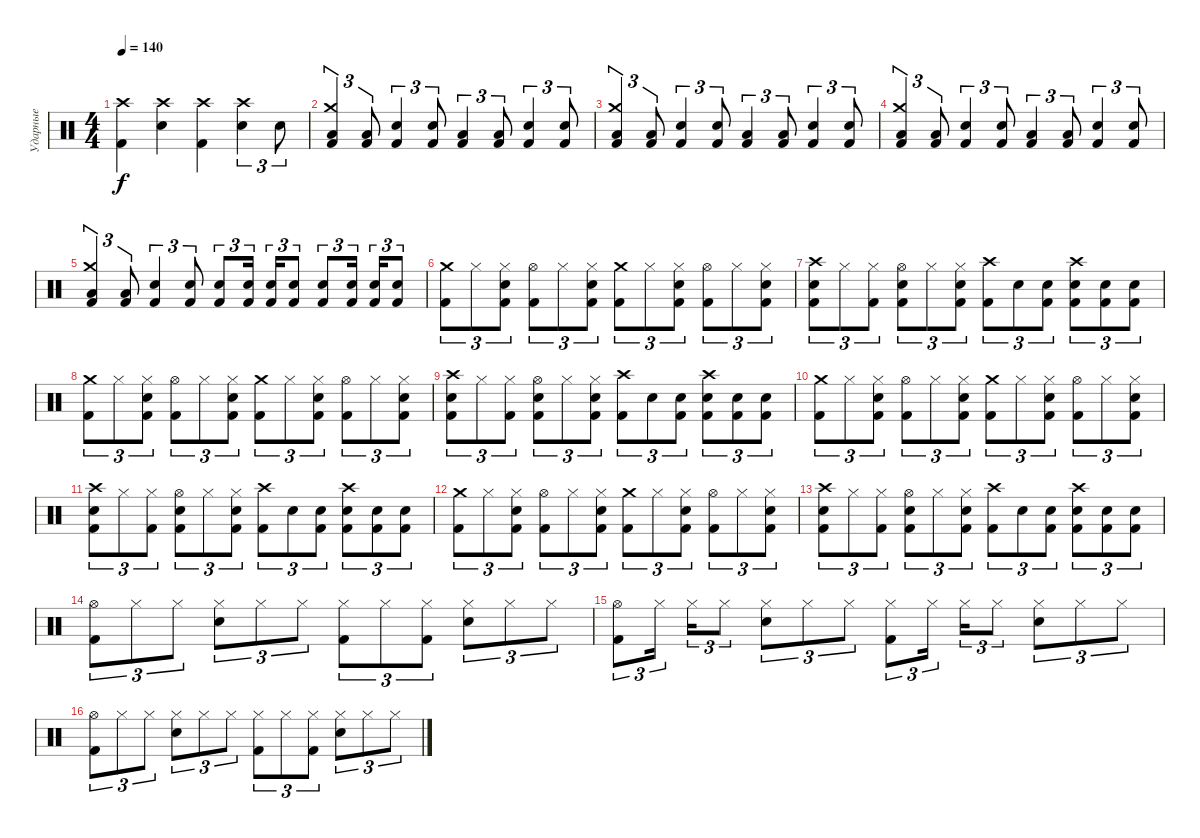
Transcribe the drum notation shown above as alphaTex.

\track ("Ударные" "Ударные") {instrument percussion}
\staff {score}
\articulation defaults
\ts (4 4)
\tempo 140
\clef neutral
\ks c
("Crash high (hit)" "Kick (hit) 2").4{dy f} ("Crash high (hit)" "Snare (hit) 2").4 ("Crash high (hit)" "Kick (hit) 2").4 ("Crash high (hit)" "Snare (hit) 2").4{tu (3 2)} "Snare (hit) 2".8{tu (3 2)} |
("Crash medium (hit)" "Low Floor Tom (hit)" "Kick (hit) 2").4{tu (3 2)} ("Low Floor Tom (hit)" "Kick (hit) 2").8{tu (3 2)} ("Snare (hit) 2" "Kick (hit) 2").4{tu (3 2)} ("Snare (hit) 2" "Kick (hit) 2").8{tu (3 2)} ("Low Tom (hit)" "Kick (hit) 2").4{tu (3 2)} ("Low Tom (hit)" "Kick (hit) 2").8{tu (3 2)} ("Snare (hit) 2" "Kick (hit) 2").4{tu (3 2)} ("Snare (hit) 2" "Kick (hit) 2").8{tu (3 2)} |
("Crash medium (hit)" "Low Floor Tom (hit)" "Kick (hit) 2").4{tu (3 2)} ("Low Floor Tom (hit)" "Kick (hit) 2").8{tu (3 2)} ("Snare (hit) 2" "Kick (hit) 2").4{tu (3 2)} ("Snare (hit) 2" "Kick (hit) 2").8{tu (3 2)} ("Low Tom (hit)" "Kick (hit) 2").4{tu (3 2)} ("Low Tom (hit)" "Kick (hit) 2").8{tu (3 2)} ("Snare (hit) 2" "Kick (hit) 2").4{tu (3 2)} ("Snare (hit) 2" "Kick (hit) 2").8{tu (3 2)} |
("Crash medium (hit)" "Low Floor Tom (hit)" "Kick (hit) 2").4{tu (3 2)} ("Low Floor Tom (hit)" "Kick (hit) 2").8{tu (3 2)} ("Snare (hit) 2" "Kick (hit) 2").4{tu (3 2)} ("Snare (hit) 2" "Kick (hit) 2").8{tu (3 2)} ("Low Tom (hit)" "Kick (hit) 2").4{tu (3 2)} ("Low Tom (hit)" "Kick (hit) 2").8{tu (3 2)} ("Snare (hit) 2" "Kick (hit) 2").4{tu (3 2)} ("Snare (hit) 2" "Kick (hit) 2").8{tu (3 2)} |
("Crash medium (hit)" "Low Floor Tom (hit)" "Kick (hit) 2").4{tu (3 2)} ("Low Floor Tom (hit)" "Kick (hit) 2").8{tu (3 2)} ("Snare (hit) 2" "Kick (hit) 2").4{tu (3 2)} ("Snare (hit) 2" "Kick (hit) 2").8{tu (3 2)} ("Electric Snare (hit)" "Kick (hit) 2").8{tu (3 2)} ("Electric Snare (hit)" "Kick (hit) 2").16{tu (3 2) beam splitsecondary} ("Electric Snare (hit)" "Kick (hit) 2").16{tu (3 2)} ("Electric Snare (hit)" "Kick (hit) 2").8{tu (3 2)} ("Snare (hit) 2" "Kick (hit) 2").8{tu (3 2)} ("Snare (hit) 2" "Kick (hit) 2").16{tu (3 2) beam splitsecondary} ("Snare (hit) 2" "Kick (hit) 2").16{tu (3 2)} ("Snare (hit) 2" "Kick (hit) 2").8{tu (3 2)} |
("Crash medium (hit)" "Kick (hit) 2").8{tu (3 2)} "Hi-Hat (closed)".8{tu (3 2)} ("Hi-Hat (closed)" "Snare (hit) 2" "Kick (hit) 2").8{tu (3 2)} ("Hi-Hat (open)" "Kick (hit) 2").8{tu (3 2)} "Hi-Hat (closed)".8{tu (3 2)} ("Hi-Hat (closed)" "Snare (hit) 2" "Kick (hit) 2").8{tu (3 2)} ("Crash medium (hit)" "Kick (hit) 2").8{tu (3 2)} "Hi-Hat (closed)".8{tu (3 2)} ("Hi-Hat (closed)" "Snare (hit) 2" "Kick (hit) 2").8{tu (3 2)} ("Hi-Hat (open)" "Kick (hit) 2").8{tu (3 2)} "Hi-Hat (closed)".8{tu (3 2)} ("Hi-Hat (closed)" "Snare (hit) 2" "Kick (hit) 2").8{tu (3 2)} |
("Crash high (hit)" "Snare (hit) 2" "Kick (hit) 2").8{tu (3 2)} "Hi-Hat (closed)".8{tu (3 2)} ("Hi-Hat (closed)" "Kick (hit) 2").8{tu (3 2)} ("Hi-Hat (open)" "Snare (hit) 2" "Kick (hit) 2").8{tu (3 2)} "Hi-Hat (closed)".8{tu (3 2)} ("Hi-Hat (closed)" "Snare (hit) 2" "Kick (hit) 2").8{tu (3 2)} ("Crash high (hit)" "Kick (hit) 2").8{tu (3 2)} "Snare (hit) 2".8{tu (3 2)} ("Snare (hit) 2" "Kick (hit) 2").8{tu (3 2)} ("Crash high (hit)" "Snare (hit) 2" "Kick (hit) 2").8{tu (3 2)} ("Snare (hit) 2" "Kick (hit) 2").8{tu (3 2)} ("Snare (hit) 2" "Kick (hit) 2").8{tu (3 2)} |
("Crash medium (hit)" "Kick (hit) 2").8{tu (3 2)} "Hi-Hat (closed)".8{tu (3 2)} ("Hi-Hat (closed)" "Snare (hit) 2" "Kick (hit) 2").8{tu (3 2)} ("Hi-Hat (open)" "Kick (hit) 2").8{tu (3 2)} "Hi-Hat (closed)".8{tu (3 2)} ("Hi-Hat (closed)" "Snare (hit) 2" "Kick (hit) 2").8{tu (3 2)} ("Crash medium (hit)" "Kick (hit) 2").8{tu (3 2)} "Hi-Hat (closed)".8{tu (3 2)} ("Hi-Hat (closed)" "Snare (hit) 2" "Kick (hit) 2").8{tu (3 2)} ("Hi-Hat (open)" "Kick (hit) 2").8{tu (3 2)} "Hi-Hat (closed)".8{tu (3 2)} ("Hi-Hat (closed)" "Snare (hit) 2" "Kick (hit) 2").8{tu (3 2)} |
("Crash high (hit)" "Snare (hit) 2" "Kick (hit) 2").8{tu (3 2)} "Hi-Hat (closed)".8{tu (3 2)} ("Hi-Hat (closed)" "Kick (hit) 2").8{tu (3 2)} ("Hi-Hat (open)" "Snare (hit) 2" "Kick (hit) 2").8{tu (3 2)} "Hi-Hat (closed)".8{tu (3 2)} ("Hi-Hat (closed)" "Snare (hit) 2" "Kick (hit) 2").8{tu (3 2)} ("Crash high (hit)" "Kick (hit) 2").8{tu (3 2)} "Snare (hit) 2".8{tu (3 2)} ("Snare (hit) 2" "Kick (hit) 2").8{tu (3 2)} ("Crash high (hit)" "Snare (hit) 2" "Kick (hit) 2").8{tu (3 2)} ("Snare (hit) 2" "Kick (hit) 2").8{tu (3 2)} ("Snare (hit) 2" "Kick (hit) 2").8{tu (3 2)} |
("Crash medium (hit)" "Kick (hit) 2").8{tu (3 2)} "Hi-Hat (closed)".8{tu (3 2)} ("Hi-Hat (closed)" "Snare (hit) 2" "Kick (hit) 2").8{tu (3 2)} ("Hi-Hat (open)" "Kick (hit) 2").8{tu (3 2)} "Hi-Hat (closed)".8{tu (3 2)} ("Hi-Hat (closed)" "Snare (hit) 2" "Kick (hit) 2").8{tu (3 2)} ("Crash medium (hit)" "Kick (hit) 2").8{tu (3 2)} "Hi-Hat (closed)".8{tu (3 2)} ("Hi-Hat (closed)" "Snare (hit) 2" "Kick (hit) 2").8{tu (3 2)} ("Hi-Hat (open)" "Kick (hit) 2").8{tu (3 2)} "Hi-Hat (closed)".8{tu (3 2)} ("Hi-Hat (closed)" "Snare (hit) 2" "Kick (hit) 2").8{tu (3 2)} |
("Crash high (hit)" "Snare (hit) 2" "Kick (hit) 2").8{tu (3 2)} "Hi-Hat (closed)".8{tu (3 2)} ("Hi-Hat (closed)" "Kick (hit) 2").8{tu (3 2)} ("Hi-Hat (open)" "Snare (hit) 2" "Kick (hit) 2").8{tu (3 2)} "Hi-Hat (closed)".8{tu (3 2)} ("Hi-Hat (closed)" "Snare (hit) 2" "Kick (hit) 2").8{tu (3 2)} ("Crash high (hit)" "Kick (hit) 2").8{tu (3 2)} "Snare (hit) 2".8{tu (3 2)} ("Snare (hit) 2" "Kick (hit) 2").8{tu (3 2)} ("Crash high (hit)" "Snare (hit) 2" "Kick (hit) 2").8{tu (3 2)} ("Snare (hit) 2" "Kick (hit) 2").8{tu (3 2)} ("Snare (hit) 2" "Kick (hit) 2").8{tu (3 2)} |
("Crash medium (hit)" "Kick (hit) 2").8{tu (3 2)} "Hi-Hat (closed)".8{tu (3 2)} ("Hi-Hat (closed)" "Snare (hit) 2" "Kick (hit) 2").8{tu (3 2)} ("Hi-Hat (open)" "Kick (hit) 2").8{tu (3 2)} "Hi-Hat (closed)".8{tu (3 2)} ("Hi-Hat (closed)" "Snare (hit) 2" "Kick (hit) 2").8{tu (3 2)} ("Crash medium (hit)" "Kick (hit) 2").8{tu (3 2)} "Hi-Hat (closed)".8{tu (3 2)} ("Hi-Hat (closed)" "Snare (hit) 2" "Kick (hit) 2").8{tu (3 2)} ("Hi-Hat (open)" "Kick (hit) 2").8{tu (3 2)} "Hi-Hat (closed)".8{tu (3 2)} ("Hi-Hat (closed)" "Snare (hit) 2" "Kick (hit) 2").8{tu (3 2)} |
("Crash high (hit)" "Snare (hit) 2" "Kick (hit) 2").8{tu (3 2)} "Hi-Hat (closed)".8{tu (3 2)} ("Hi-Hat (closed)" "Kick (hit) 2").8{tu (3 2)} ("Hi-Hat (open)" "Snare (hit) 2" "Kick (hit) 2").8{tu (3 2)} "Hi-Hat (closed)".8{tu (3 2)} ("Hi-Hat (closed)" "Snare (hit) 2" "Kick (hit) 2").8{tu (3 2)} ("Crash high (hit)" "Kick (hit) 2").8{tu (3 2)} "Snare (hit) 2".8{tu (3 2)} ("Snare (hit) 2" "Kick (hit) 2").8{tu (3 2)} ("Crash high (hit)" "Snare (hit) 2" "Kick (hit) 2").8{tu (3 2)} ("Snare (hit) 2" "Kick (hit) 2").8{tu (3 2)} ("Snare (hit) 2" "Kick (hit) 2").8{tu (3 2)} |
("Hi-Hat (open)" "Kick (hit) 2").8{tu (3 2)} "Hi-Hat (closed)".8{tu (3 2)} "Hi-Hat (closed)".8{tu (3 2)} ("Hi-Hat (closed)" "Snare (hit) 2").8{tu (3 2)} "Hi-Hat (closed)".8{tu (3 2)} "Hi-Hat (closed)".8{tu (3 2)} ("Hi-Hat (closed)" "Kick (hit) 2").8{tu (3 2)} "Hi-Hat (closed)".8{tu (3 2)} ("Hi-Hat (closed)" "Kick (hit) 2").8{tu (3 2)} ("Hi-Hat (closed)" "Snare (hit) 2").8{tu (3 2)} "Hi-Hat (closed)".8{tu (3 2)} "Hi-Hat (closed)".8{tu (3 2)} |
("Hi-Hat (open)" "Kick (hit) 2").8{tu (3 2)} "Hi-Hat (closed)".16{tu (3 2) beam splitsecondary} "Hi-Hat (closed)".16{tu (3 2)} "Hi-Hat (closed)".8{tu (3 2)} ("Hi-Hat (closed)" "Snare (hit) 2").8{tu (3 2)} "Hi-Hat (closed)".8{tu (3 2)} "Hi-Hat (closed)".8{tu (3 2)} ("Hi-Hat (closed)" "Kick (hit) 2").8{tu (3 2)} "Hi-Hat (closed)".16{tu (3 2) beam splitsecondary} "Hi-Hat (closed)".16{tu (3 2)} "Hi-Hat (closed)".8{tu (3 2)} ("Hi-Hat (closed)" "Snare (hit) 2").8{tu (3 2)} "Hi-Hat (closed)".8{tu (3 2)} "Hi-Hat (closed)".8{tu (3 2)} |
("Hi-Hat (open)" "Kick (hit) 2").8{tu (3 2)} "Hi-Hat (closed)".8{tu (3 2)} "Hi-Hat (closed)".8{tu (3 2)} ("Hi-Hat (closed)" "Snare (hit) 2").8{tu (3 2)} "Hi-Hat (closed)".8{tu (3 2)} "Hi-Hat (closed)".8{tu (3 2)} ("Hi-Hat (closed)" "Kick (hit) 2").8{tu (3 2)} "Hi-Hat (closed)".8{tu (3 2)} ("Hi-Hat (closed)" "Kick (hit) 2").8{tu (3 2)} ("Hi-Hat (closed)" "Snare (hit) 2").8{tu (3 2)} "Hi-Hat (closed)".8{tu (3 2)} "Hi-Hat (closed)".8{tu (3 2)}
